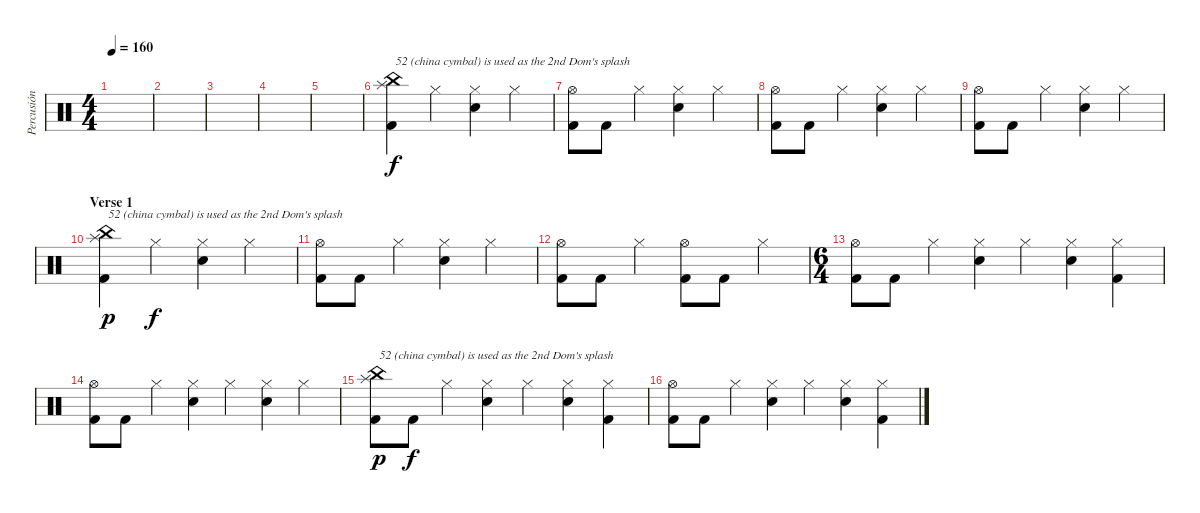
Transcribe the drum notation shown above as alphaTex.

\track ("Percusión" "Percusión") {instrument percussion}
\staff {score}
\articulation defaults
\ts (4 4)
\tempo 160
\clef neutral
\ks c
|
|
|
|
|
("Splash (hit)" "China (hit)" "Kick (hit) 2").4{txt "52 (china cymbal) is used as the 2nd Dom's splash"} "Hi-Hat (closed)".4{dy f} ("Hi-Hat (closed)" "Snare (hit) 2").4 "Hi-Hat (closed)".4 |
("Hi-Hat (open)" "Kick (hit) 2").8 "Kick (hit) 2".8 "Hi-Hat (closed)".4 ("Hi-Hat (closed)" "Snare (hit) 2").4 "Hi-Hat (closed)".4 |
("Hi-Hat (open)" "Kick (hit) 2").8 "Kick (hit) 2".8 "Hi-Hat (closed)".4 ("Hi-Hat (closed)" "Snare (hit) 2").4 "Hi-Hat (closed)".4 |
("Hi-Hat (open)" "Kick (hit) 2").8 "Kick (hit) 2".8 "Hi-Hat (closed)".4 ("Hi-Hat (closed)" "Snare (hit) 2").4 "Hi-Hat (closed)".4 |
\section ("" "Verse 1")
("Splash (hit)" "China (hit)" "Kick (hit) 2").4{txt "52 (china cymbal) is used as the 2nd Dom's splash" dy p} "Hi-Hat (closed)".4{dy f} ("Hi-Hat (closed)" "Snare (hit) 2").4 "Hi-Hat (closed)".4 |
("Hi-Hat (open)" "Kick (hit) 2").8 "Kick (hit) 2".8 "Hi-Hat (closed)".4 ("Hi-Hat (closed)" "Snare (hit) 2").4 "Hi-Hat (closed)".4 |
("Hi-Hat (open)" "Kick (hit) 2").8 "Kick (hit) 2".8 "Hi-Hat (closed)".4 ("Hi-Hat (open)" "Kick (hit) 2").8 "Kick (hit) 2".8 "Hi-Hat (closed)".4 |
\ts (6 4)
("Hi-Hat (open)" "Kick (hit) 2").8 "Kick (hit) 2".8 "Hi-Hat (closed)".4 ("Hi-Hat (closed)" "Snare (hit) 2").4 "Hi-Hat (closed)".4 ("Hi-Hat (closed)" "Snare (hit) 2").4 ("Hi-Hat (closed)" "Kick (hit) 2").4 |
("Hi-Hat (open)" "Kick (hit) 2").8 "Kick (hit) 2".8 "Hi-Hat (closed)".4 ("Hi-Hat (closed)" "Snare (hit) 2").4 "Hi-Hat (closed)".4 ("Hi-Hat (closed)" "Snare (hit) 2").4 "Hi-Hat (closed)".4 |
("Splash (hit)" "China (hit)" "Kick (hit) 2").8{txt "52 (china cymbal) is used as the 2nd Dom's splash" dy p} "Kick (hit) 2".8{dy f} "Hi-Hat (closed)".4 ("Hi-Hat (closed)" "Snare (hit) 2").4 "Hi-Hat (closed)".4 ("Hi-Hat (closed)" "Snare (hit) 2").4 ("Hi-Hat (closed)" "Kick (hit) 2").4 |
("Hi-Hat (open)" "Kick (hit) 2").8 "Kick (hit) 2".8 "Hi-Hat (closed)".4 ("Hi-Hat (closed)" "Snare (hit) 2").4 "Hi-Hat (closed)".4 ("Hi-Hat (closed)" "Snare (hit) 2").4 ("Hi-Hat (closed)" "Kick (hit) 2").4
